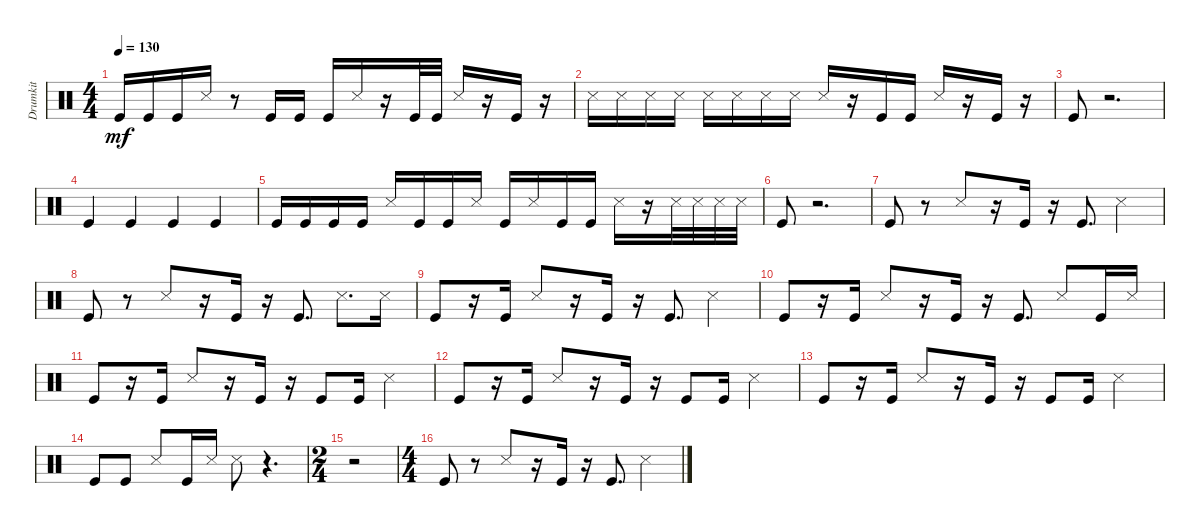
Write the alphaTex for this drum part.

\track ("Drumkit" "Drumkit") {instrument percussion}
\staff {score}
\articulation defaults
\ts (4 4)
\tempo 130
\clef neutral
\ks c "Kick (hit)".16{dy mf} "Kick (hit)".16 "Kick (hit)".16 "Snare (side stick) 3".16
r.8 "Kick (hit)".16 "Kick (hit)".16 "Kick (hit)".16 "Snare (side stick) 3".16 r.16 "Kick (hit)".32 "Kick (hit)".32 "Snare (side stick) 3".16 r.16 "Kick (hit)".16 r.16 |
"Snare (side stick) 3".16 "Snare (side stick) 3".16 "Snare (side stick) 3".16 "Snare (side stick) 3".16 "Snare (side stick) 3".16 "Snare (side stick) 3".16 "Snare (side stick) 3".16 "Snare (side stick) 3".16 "Snare (side stick) 3".16 r.16 "Kick (hit)".16 "Kick (hit)".16 "Snare (side stick) 3".16 r.16 "Kick (hit)".16 r.16 |
"Kick (hit)".8 r.2{d} |
"Kick (hit)".4 "Kick (hit)".4 "Kick (hit)".4 "Kick (hit)".4 |
"Kick (hit)".16 "Kick (hit)".16 "Kick (hit)".16 "Kick (hit)".16 "Snare (side stick) 3".16 "Kick (hit)".16 "Kick (hit)".16 "Snare (side stick) 3".16 "Kick (hit)".16 "Snare (side stick) 3".16 "Kick (hit)".16 "Kick (hit)".16 "Snare (side stick) 3".16 r.16 "Snare (side stick) 3".32 "Snare (side stick) 3".32 "Snare (side stick) 3".32 "Snare (side stick) 3".32 |
"Kick (hit)".8 r.2{d} |
"Kick (hit)".8 r.8 "Snare (side stick) 3".8 r.16 "Kick (hit)".16 r.16 "Kick (hit)".8{d} "Snare (side stick) 3".4 |
"Kick (hit)".8 r.8 "Snare (side stick) 3".8 r.16 "Kick (hit)".16 r.16 "Kick (hit)".8{d} "Snare (side stick) 3".8{d} "Snare (side stick) 3".16 |
"Kick (hit)".8 r.16 "Kick (hit)".16 "Snare (side stick) 3".8 r.16 "Kick (hit)".16 r.16 "Kick (hit)".8{d} "Snare (side stick) 3".4 |
"Kick (hit)".8 r.16 "Kick (hit)".16 "Snare (side stick) 3".8 r.16 "Kick (hit)".16 r.16 "Kick (hit)".8{d} "Snare (side stick) 3".8 "Kick (hit)".16 "Snare (side stick) 3".16 |
"Kick (hit)".8 r.16 "Kick (hit)".16 "Snare (side stick) 3".8 r.16 "Kick (hit)".16 r.16 "Kick (hit)".8 "Kick (hit)".16 "Snare (side stick) 3".4 |
"Kick (hit)".8 r.16 "Kick (hit)".16 "Snare (side stick) 3".8 r.16 "Kick (hit)".16 r.16 "Kick (hit)".8 "Kick (hit)".16 "Snare (side stick) 3".4 |
"Kick (hit)".8 r.16 "Kick (hit)".16 "Snare (side stick) 3".8 r.16 "Kick (hit)".16 r.16 "Kick (hit)".8 "Kick (hit)".16 "Snare (side stick) 3".4 |
"Kick (hit)".8 "Kick (hit)".8 "Snare (side stick) 3".8 "Kick (hit)".16 "Snare (side stick) 3".16 "Snare (side stick) 3".8 r.4{d} |
\ts (2 4)
r.2 |
\ts (4 4)
"Kick (hit)".8 r.8 "Snare (side stick) 3".8 r.16 "Kick (hit)".16 r.16 "Kick (hit)".8{d} "Snare (side stick) 3".4
